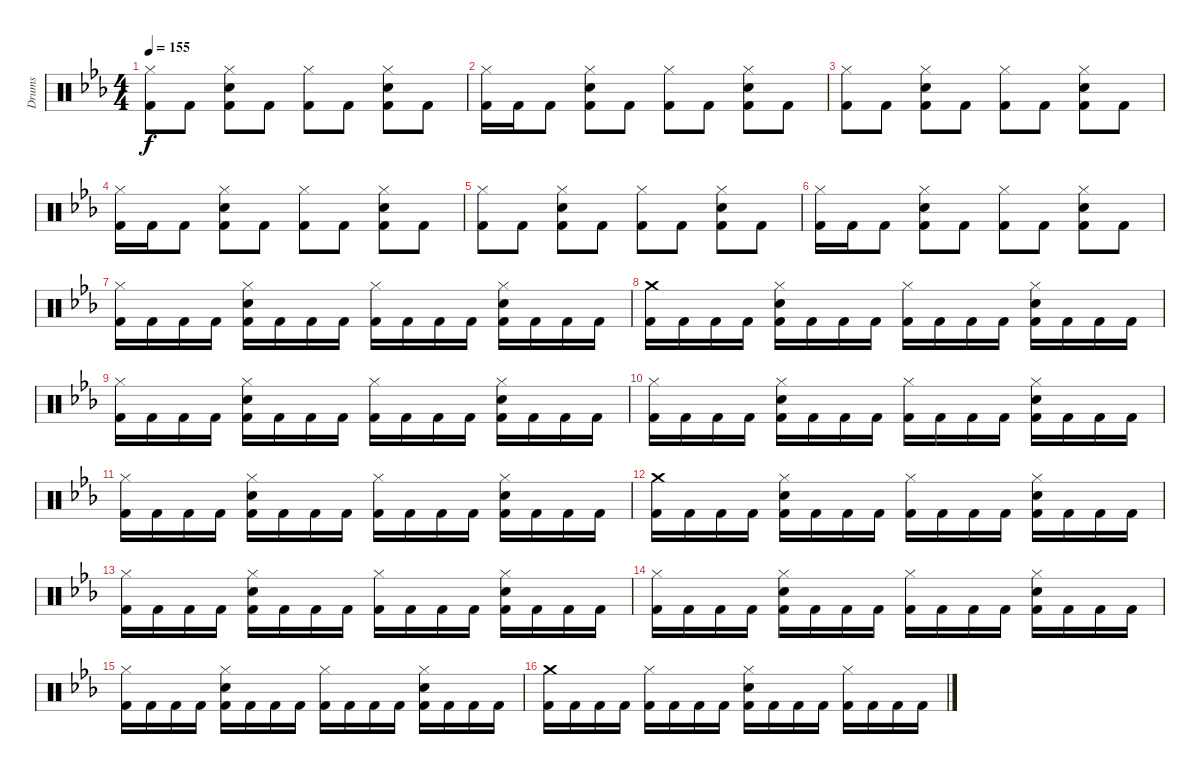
\track ("Drums" "Drums") {instrument percussion}
\staff {score}
\articulation defaults
\ts (4 4)
\tempo 155
\clef neutral
\ks cminor
("Hi-Hat (closed)" "Kick (hit) 2").8{dy f} "Kick (hit) 2".8 ("Hi-Hat (closed)" "Electric Snare (hit)" "Kick (hit) 2").8 "Kick (hit) 2".8 ("Hi-Hat (closed)" "Kick (hit) 2").8 "Kick (hit) 2".8 ("Hi-Hat (closed)" "Electric Snare (hit)" "Kick (hit) 2").8 "Kick (hit) 2".8 |
("Kick (hit) 2" "Hi-Hat (closed)").16 "Kick (hit) 2".16 "Kick (hit) 2".8 ("Hi-Hat (closed)" "Electric Snare (hit)" "Kick (hit) 2").8 "Kick (hit) 2".8 ("Hi-Hat (closed)" "Kick (hit) 2").8 "Kick (hit) 2".8 ("Hi-Hat (closed)" "Electric Snare (hit)" "Kick (hit) 2").8 "Kick (hit) 2".8 |
("Hi-Hat (closed)" "Kick (hit) 2").8 "Kick (hit) 2".8 ("Hi-Hat (closed)" "Electric Snare (hit)" "Kick (hit) 2").8 "Kick (hit) 2".8 ("Hi-Hat (closed)" "Kick (hit) 2").8 "Kick (hit) 2".8 ("Hi-Hat (closed)" "Electric Snare (hit)" "Kick (hit) 2").8 "Kick (hit) 2".8 |
("Kick (hit) 2" "Hi-Hat (closed)").16 "Kick (hit) 2".16 "Kick (hit) 2".8 ("Hi-Hat (closed)" "Electric Snare (hit)" "Kick (hit) 2").8 "Kick (hit) 2".8 ("Hi-Hat (closed)" "Kick (hit) 2").8 "Kick (hit) 2".8 ("Hi-Hat (closed)" "Electric Snare (hit)" "Kick (hit) 2").8 "Kick (hit) 2".8 |
("Hi-Hat (closed)" "Kick (hit) 2").8 "Kick (hit) 2".8 ("Hi-Hat (closed)" "Electric Snare (hit)" "Kick (hit) 2").8 "Kick (hit) 2".8 ("Hi-Hat (closed)" "Kick (hit) 2").8 "Kick (hit) 2".8 ("Hi-Hat (closed)" "Electric Snare (hit)" "Kick (hit) 2").8 "Kick (hit) 2".8 |
("Kick (hit) 2" "Hi-Hat (closed)").16 "Kick (hit) 2".16 "Kick (hit) 2".8 ("Hi-Hat (closed)" "Electric Snare (hit)" "Kick (hit) 2").8 "Kick (hit) 2".8 ("Hi-Hat (closed)" "Kick (hit) 2").8 "Kick (hit) 2".8 ("Hi-Hat (closed)" "Electric Snare (hit)" "Kick (hit) 2").8 "Kick (hit) 2".8 |
("Hi-Hat (closed)" "Kick (hit) 2").16 "Kick (hit) 2".16 "Kick (hit) 2".16 "Kick (hit) 2".16 ("Hi-Hat (closed)" "Electric Snare (hit)" "Kick (hit) 2").16 "Kick (hit) 2".16 "Kick (hit) 2".16 "Kick (hit) 2".16 ("Hi-Hat (closed)" "Kick (hit) 2").16 "Kick (hit) 2".16 "Kick (hit) 2".16 "Kick (hit) 2".16 ("Hi-Hat (closed)" "Electric Snare (hit)" "Kick (hit) 2").16 "Kick (hit) 2".16 "Kick (hit) 2".16 "Kick (hit) 2".16 |
("Crash medium (hit)" "Kick (hit) 2").16 "Kick (hit) 2".16 "Kick (hit) 2".16 "Kick (hit) 2".16 ("Hi-Hat (closed)" "Electric Snare (hit)" "Kick (hit) 2").16 "Kick (hit) 2".16 "Kick (hit) 2".16 "Kick (hit) 2".16 ("Hi-Hat (closed)" "Kick (hit) 2").16 "Kick (hit) 2".16 "Kick (hit) 2".16 "Kick (hit) 2".16 ("Hi-Hat (closed)" "Electric Snare (hit)" "Kick (hit) 2").16 "Kick (hit) 2".16 "Kick (hit) 2".16 "Kick (hit) 2".16 |
("Hi-Hat (closed)" "Kick (hit) 2").16 "Kick (hit) 2".16 "Kick (hit) 2".16 "Kick (hit) 2".16 ("Hi-Hat (closed)" "Electric Snare (hit)" "Kick (hit) 2").16 "Kick (hit) 2".16 "Kick (hit) 2".16 "Kick (hit) 2".16 ("Hi-Hat (closed)" "Kick (hit) 2").16 "Kick (hit) 2".16 "Kick (hit) 2".16 "Kick (hit) 2".16 ("Hi-Hat (closed)" "Electric Snare (hit)" "Kick (hit) 2").16 "Kick (hit) 2".16 "Kick (hit) 2".16 "Kick (hit) 2".16 |
("Hi-Hat (closed)" "Kick (hit) 2").16 "Kick (hit) 2".16 "Kick (hit) 2".16 "Kick (hit) 2".16 ("Hi-Hat (closed)" "Electric Snare (hit)" "Kick (hit) 2").16 "Kick (hit) 2".16 "Kick (hit) 2".16 "Kick (hit) 2".16 ("Hi-Hat (closed)" "Kick (hit) 2").16 "Kick (hit) 2".16 "Kick (hit) 2".16 "Kick (hit) 2".16 ("Hi-Hat (closed)" "Electric Snare (hit)" "Kick (hit) 2").16 "Kick (hit) 2".16 "Kick (hit) 2".16 "Kick (hit) 2".16 |
("Hi-Hat (closed)" "Kick (hit) 2").16 "Kick (hit) 2".16 "Kick (hit) 2".16 "Kick (hit) 2".16 ("Hi-Hat (closed)" "Electric Snare (hit)" "Kick (hit) 2").16 "Kick (hit) 2".16 "Kick (hit) 2".16 "Kick (hit) 2".16 ("Hi-Hat (closed)" "Kick (hit) 2").16 "Kick (hit) 2".16 "Kick (hit) 2".16 "Kick (hit) 2".16 ("Hi-Hat (closed)" "Electric Snare (hit)" "Kick (hit) 2").16 "Kick (hit) 2".16 "Kick (hit) 2".16 "Kick (hit) 2".16 |
("Crash medium (hit)" "Kick (hit) 2").16 "Kick (hit) 2".16 "Kick (hit) 2".16 "Kick (hit) 2".16 ("Hi-Hat (closed)" "Electric Snare (hit)" "Kick (hit) 2").16 "Kick (hit) 2".16 "Kick (hit) 2".16 "Kick (hit) 2".16 ("Hi-Hat (closed)" "Kick (hit) 2").16 "Kick (hit) 2".16 "Kick (hit) 2".16 "Kick (hit) 2".16 ("Hi-Hat (closed)" "Electric Snare (hit)" "Kick (hit) 2").16 "Kick (hit) 2".16 "Kick (hit) 2".16 "Kick (hit) 2".16 |
("Hi-Hat (closed)" "Kick (hit) 2").16 "Kick (hit) 2".16 "Kick (hit) 2".16 "Kick (hit) 2".16 ("Hi-Hat (closed)" "Electric Snare (hit)" "Kick (hit) 2").16 "Kick (hit) 2".16 "Kick (hit) 2".16 "Kick (hit) 2".16 ("Hi-Hat (closed)" "Kick (hit) 2").16 "Kick (hit) 2".16 "Kick (hit) 2".16 "Kick (hit) 2".16 ("Hi-Hat (closed)" "Electric Snare (hit)" "Kick (hit) 2").16 "Kick (hit) 2".16 "Kick (hit) 2".16 "Kick (hit) 2".16 |
("Hi-Hat (closed)" "Kick (hit) 2").16 "Kick (hit) 2".16 "Kick (hit) 2".16 "Kick (hit) 2".16 ("Hi-Hat (closed)" "Electric Snare (hit)" "Kick (hit) 2").16 "Kick (hit) 2".16 "Kick (hit) 2".16 "Kick (hit) 2".16 ("Hi-Hat (closed)" "Kick (hit) 2").16 "Kick (hit) 2".16 "Kick (hit) 2".16 "Kick (hit) 2".16 ("Hi-Hat (closed)" "Electric Snare (hit)" "Kick (hit) 2").16 "Kick (hit) 2".16 "Kick (hit) 2".16 "Kick (hit) 2".16 |
("Hi-Hat (closed)" "Kick (hit) 2").16 "Kick (hit) 2".16 "Kick (hit) 2".16 "Kick (hit) 2".16 ("Hi-Hat (closed)" "Electric Snare (hit)" "Kick (hit) 2").16 "Kick (hit) 2".16 "Kick (hit) 2".16 "Kick (hit) 2".16 ("Hi-Hat (closed)" "Kick (hit) 2").16 "Kick (hit) 2".16 "Kick (hit) 2".16 "Kick (hit) 2".16 ("Hi-Hat (closed)" "Electric Snare (hit)" "Kick (hit) 2").16 "Kick (hit) 2".16 "Kick (hit) 2".16 "Kick (hit) 2".16 |
("Crash medium (hit)" "Kick (hit) 2").16 "Kick (hit) 2".16 "Kick (hit) 2".16 "Kick (hit) 2".16 ("Hi-Hat (closed)" "Kick (hit) 2").16 "Kick (hit) 2".16 "Kick (hit) 2".16 "Kick (hit) 2".16 ("Hi-Hat (closed)" "Kick (hit) 2" "Electric Snare (hit)").16 "Kick (hit) 2".16 "Kick (hit) 2".16 "Kick (hit) 2".16 ("Hi-Hat (closed)" "Kick (hit) 2").16 "Kick (hit) 2".16 "Kick (hit) 2".16 "Kick (hit) 2".16
